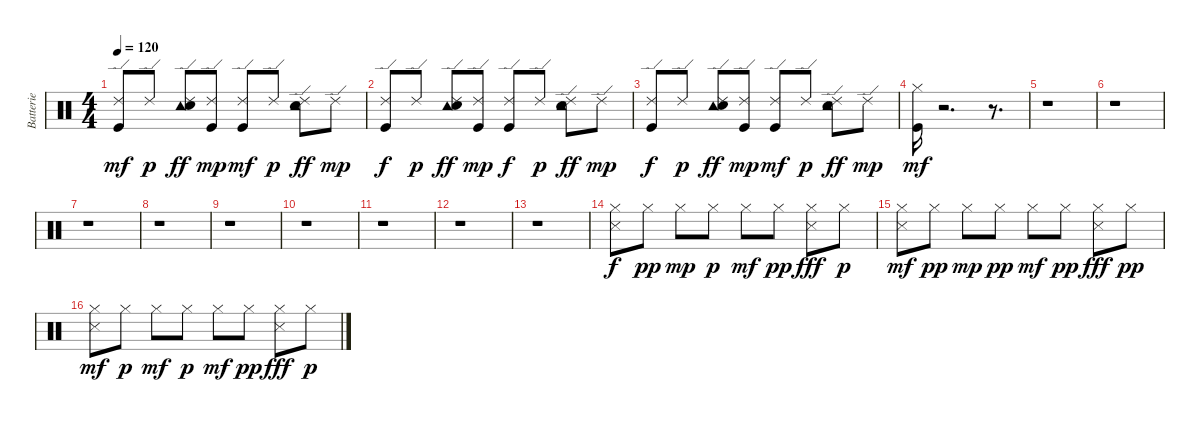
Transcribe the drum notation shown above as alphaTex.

\track ("Batterie" "Batterie") {instrument percussion}
\staff {score}
\articulation defaults
\ts (4 4)
\tempo 120
\clef neutral
\ks c
("Kick (hit)" "Ride (edge) 2").8{dy mf} "Ride (edge) 2".8{dy p} ("Tambourine (hit)" "Electric Snare (hit)" "Ride (edge) 2").8{dy ff} ("Kick (hit)" "Ride (edge) 2").8{dy mp} ("Kick (hit)" "Ride (edge) 2").8{dy mf} "Ride (edge) 2".8{dy p} ("Tambourine (hit)" "Electric Snare (hit)" "Ride (edge) 2").8{dy ff} "Ride (edge) 2".8{dy mp} |
("Kick (hit)" "Ride (edge) 2").8{dy f} "Ride (edge) 2".8{dy p} ("Tambourine (hit)" "Electric Snare (hit)" "Ride (edge) 2").8{dy ff} ("Kick (hit)" "Ride (edge) 2").8{dy mp} ("Kick (hit)" "Ride (edge) 2").8{dy f} "Ride (edge) 2".8{dy p} ("Tambourine (hit)" "Electric Snare (hit)" "Ride (edge) 2").8{dy ff} "Ride (edge) 2".8{dy mp} |
("Kick (hit)" "Ride (edge) 2").8{dy f} "Ride (edge) 2".8{dy p} ("Tambourine (hit)" "Electric Snare (hit)" "Ride (edge) 2").8{dy ff} ("Kick (hit)" "Ride (edge) 2").8{dy mp} ("Kick (hit)" "Ride (edge) 2").8{dy mf} "Ride (edge) 2".8{dy p} ("Tambourine (hit)" "Electric Snare (hit)" "Ride (edge) 2").8{dy ff} "Ride (edge) 2".8{dy mp} |
("Kick (hit)" "Hi-Hat (closed)").16{dy mf} r.2{d} r.8{d} |
r.1 |
r.1 |
r.1 |
r.1 |
r.1 |
r.1 |
r.1 |
r.1 |
r.1 |
("Metronome (hit)" "Hi-Hat (closed)").8{dy f} "Hi-Hat (closed)".8{dy pp} "Hi-Hat (closed)".8{dy mp} "Hi-Hat (closed)".8{dy p} "Hi-Hat (closed)".8{dy mf} "Hi-Hat (closed)".8{dy pp} ("Snare (side stick) 3" "Hi-Hat (closed)").8{dy fff} "Hi-Hat (closed)".8{dy p} |
("Metronome (hit)" "Hi-Hat (closed)").8{dy mf} "Hi-Hat (closed)".8{dy pp} "Hi-Hat (closed)".8{dy mp} "Hi-Hat (closed)".8{dy pp} "Hi-Hat (closed)".8{dy mf} "Hi-Hat (closed)".8{dy pp} ("Snare (side stick) 3" "Hi-Hat (closed)").8{dy fff} "Hi-Hat (closed)".8{dy pp} |
("Metronome (hit)" "Hi-Hat (closed)").8{dy mf} "Hi-Hat (closed)".8{dy p} "Hi-Hat (closed)".8{dy mf} "Hi-Hat (closed)".8{dy p} "Hi-Hat (closed)".8{dy mf} "Hi-Hat (closed)".8{dy pp} ("Snare (side stick) 3" "Hi-Hat (closed)").8{dy fff} "Hi-Hat (closed)".8{dy p}
